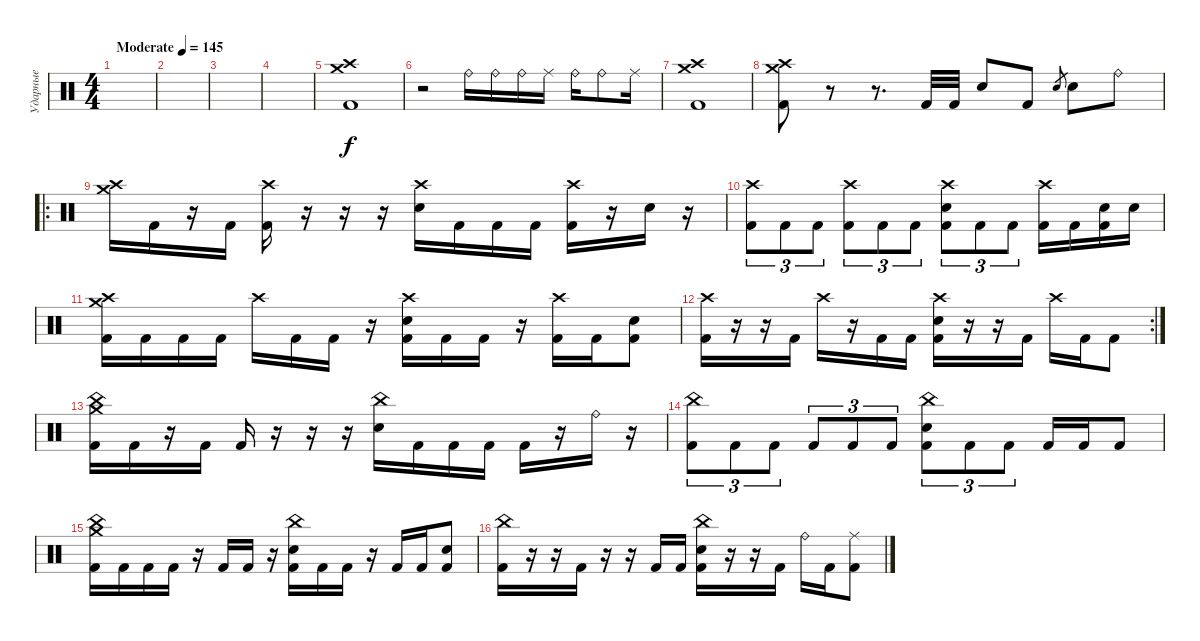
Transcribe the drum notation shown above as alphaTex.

\track ("Ударные" "Ударные") {instrument percussion}
\staff {score}
\articulation defaults
\ts (4 4)
\tempo (145 "Moderate")
\clef neutral
\ks c
|
|
|
|
("Crash medium (hit)" "Crash high (hit)" "Kick (hit) 2").1 |
r.2 "Ride (bell)".16 "Ride (bell)".16 "Ride (bell)".16 "Ride (middle)".16 "Ride (bell)".16 "Ride (bell)".8 "Ride (middle)".16 |
("Crash medium (hit)" "Crash high (hit)" "Kick (hit) 2").1 |
("Crash high (hit)" "Crash medium (hit)" "Kick (hit) 2").8 r.8 r.8{d} "Kick (hit) 2".32 "Kick (hit) 2".32 "Electric Snare (hit)".8 "Kick (hit) 2".8 "Electric Snare (hit)".8{gr} "Electric Snare (hit)".8 "Ride (bell)".8 |
\ro
("Crash medium (hit)" "Crash high (hit)").16 "Kick (hit) 2".16 r.16 "Kick (hit) 2".16 ("Kick (hit) 2" "Crash high (hit)").16 r.16 r.16 r.16 ("Snare (hit) 2" "Crash high (hit)").16 "Kick (hit) 2".16 "Kick (hit) 2".16 "Kick (hit) 2".16 ("Kick (hit) 2" "Crash high (hit)").16 r.16 "Snare (hit) 2".16 r.16 |
("Crash high (hit)" "Kick (hit) 2").8{tu (3 2)} "Kick (hit) 2".8{tu (3 2)} "Kick (hit) 2".8{tu (3 2)} ("Crash high (hit)" "Kick (hit) 2").8{tu (3 2)} "Kick (hit) 2".8{tu (3 2)} "Kick (hit) 2".8{tu (3 2)} ("Crash high (hit)" "Snare (hit) 2" "Kick (hit) 2").8{tu (3 2)} "Kick (hit) 2".8{tu (3 2)} "Kick (hit) 2".8{tu (3 2)} ("Crash high (hit)" "Kick (hit) 2").16 "Kick (hit) 2".16 ("Snare (hit) 2" "Kick (hit) 2").16 "Snare (hit) 2".16 |
("Crash high (hit)" "Crash medium (hit)" "Kick (hit) 2").16 "Kick (hit) 2".16 "Kick (hit) 2".16 "Kick (hit) 2".16 "Crash high (hit)".16 "Kick (hit) 2".16 "Kick (hit) 2".16 r.16 ("Crash high (hit)" "Snare (hit) 2" "Kick (hit) 2").16 "Kick (hit) 2".16 "Kick (hit) 2".16 r.16 ("Crash high (hit)" "Kick (hit) 2").16 "Kick (hit) 2".16 ("Electric Snare (hit)" "Kick (hit) 2").8 |
\rc 2
("Crash high (hit)" "Kick (hit) 2").16 r.16 r.16 "Kick (hit) 2".16 "Crash high (hit)".16 r.16 "Kick (hit) 2".16 "Kick (hit) 2".16 ("Crash high (hit)" "Snare (hit) 2" "Kick (hit) 2").16 r.16 r.16 "Kick (hit) 2".16 "Crash high (hit)".16 "Kick (hit) 2".16 "Kick (hit) 2".8 |
("Kick (hit) 2" "Crash medium (hit)" "China (hit)").16 "Kick (hit) 2".16 r.16 "Kick (hit) 2".16 "Kick (hit) 2".16 r.16 r.16 r.16 ("Snare (hit) 2" "China (hit)").16 "Kick (hit) 2".16 "Kick (hit) 2".16 "Kick (hit) 2".16 "Kick (hit) 2".16 r.16 "Ride (bell)".16 r.16 |
("China (hit)" "Kick (hit) 2").8{tu (3 2)} "Kick (hit) 2".8{tu (3 2)} "Kick (hit) 2".8{tu (3 2)} "Kick (hit) 2".8{tu (3 2)} "Kick (hit) 2".8{tu (3 2)} "Kick (hit) 2".8{tu (3 2)} ("China (hit)" "Snare (hit) 2" "Kick (hit) 2").8{tu (3 2)} "Kick (hit) 2".8{tu (3 2)} "Kick (hit) 2".8{tu (3 2)} "Kick (hit) 2".16 "Kick (hit) 2".16 "Kick (hit) 2".8 |
("China (hit)" "Crash medium (hit)" "Kick (hit) 2").16 "Kick (hit) 2".16 "Kick (hit) 2".16 "Kick (hit) 2".16 r.16 "Kick (hit) 2".16 "Kick (hit) 2".16 r.16 ("China (hit)" "Snare (hit) 2" "Kick (hit) 2").16 "Kick (hit) 2".16 "Kick (hit) 2".16 r.16 "Kick (hit) 2".16 "Kick (hit) 2".16 ("Electric Snare (hit)" "Kick (hit) 2").8 |
("China (hit)" "Kick (hit) 2").16 r.16 r.16 "Kick (hit) 2".16 r.16 r.16 "Kick (hit) 2".16 "Kick (hit) 2".16 ("China (hit)" "Snare (hit) 2" "Kick (hit) 2").16 r.16 r.16 "Kick (hit) 2".16 "Ride (bell)".16 "Kick (hit) 2".16 ("Ride (middle)" "Kick (hit) 2").8
